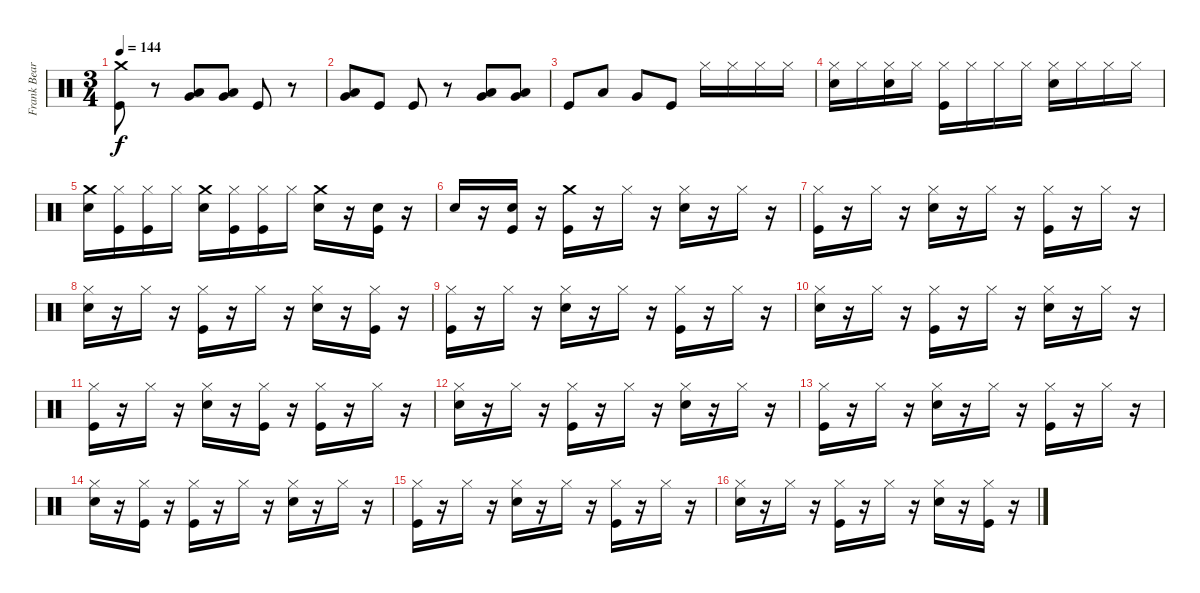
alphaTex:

\track ("Frank Beard" "Frank Bear") {instrument percussion}
\staff {score}
\articulation defaults
\ts (3 4)
\tempo 144
\clef neutral
\ks c
("Crash medium (hit)" "Kick (hit)").8{dy f} r.8 ("Very Low Tom (hit)" "Low Tom (hit)").8 ("Very Low Tom (hit)" "Low Floor Tom (hit)").8 "Kick (hit)".8 r.8 |
("Very Low Tom (hit)" "Low Floor Tom (hit)").8 "Kick (hit)".8 "Kick (hit)".8 r.8 ("Very Low Tom (hit)" "Low Tom (hit)").8 ("Very Low Tom (hit)" "Low Floor Tom (hit)").8 |
"Kick (hit)".8 "Low Tom (hit)".8 "Very Low Tom (hit)".8 "Kick (hit)".8 "Hi-Hat (closed)".16 "Hi-Hat (closed)".16 "Hi-Hat (closed)".16 "Hi-Hat (closed)".16 |
("Hi-Hat (closed)" "Electric Snare (hit)").16 "Hi-Hat (closed)".16 ("Hi-Hat (closed)" "Electric Snare (hit)").16 "Hi-Hat (closed)".16 ("Hi-Hat (closed)" "Kick (hit)").16 "Hi-Hat (closed)".16 "Hi-Hat (closed)".16 "Hi-Hat (closed)".16 ("Hi-Hat (closed)" "Electric Snare (hit)").16 "Hi-Hat (closed)".16 "Hi-Hat (closed)".16 "Hi-Hat (closed)".16 |
("Crash medium (hit)" "Electric Snare (hit)").16 ("Hi-Hat (closed)" "Kick (hit)").16 ("Hi-Hat (closed)" "Kick (hit)").16 "Hi-Hat (closed)".16 ("Crash medium (hit)" "Electric Snare (hit)").16 ("Hi-Hat (closed)" "Kick (hit)").16 ("Hi-Hat (closed)" "Kick (hit)").16 "Hi-Hat (closed)".16 ("Crash medium (hit)" "Electric Snare (hit)").16 r.16 ("Electric Snare (hit)" "Kick (hit)").16 r.16 |
"Electric Snare (hit)".16 r.16 ("Electric Snare (hit)" "Kick (hit)").16 r.16 ("Crash medium (hit)" "Kick (hit)").16 r.16 "Hi-Hat (closed)".16 r.16 ("Hi-Hat (closed)" "Electric Snare (hit)").16 r.16 "Hi-Hat (closed)".16 r.16 |
("Hi-Hat (closed)" "Kick (hit)").16 r.16 "Hi-Hat (closed)".16 r.16 ("Hi-Hat (closed)" "Electric Snare (hit)").16 r.16 "Hi-Hat (closed)".16 r.16 ("Hi-Hat (closed)" "Kick (hit)").16 r.16 "Hi-Hat (closed)".16 r.16 |
("Hi-Hat (closed)" "Electric Snare (hit)").16 r.16 "Hi-Hat (closed)".16 r.16 ("Hi-Hat (closed)" "Kick (hit)").16 r.16 "Hi-Hat (closed)".16 r.16 ("Hi-Hat (closed)" "Electric Snare (hit)").16 r.16 ("Hi-Hat (closed)" "Kick (hit)").16 r.16 |
("Hi-Hat (closed)" "Kick (hit)").16 r.16 "Hi-Hat (closed)".16 r.16 ("Hi-Hat (closed)" "Electric Snare (hit)").16 r.16 "Hi-Hat (closed)".16 r.16 ("Hi-Hat (closed)" "Kick (hit)").16 r.16 "Hi-Hat (closed)".16 r.16 |
("Hi-Hat (closed)" "Electric Snare (hit)").16 r.16 "Hi-Hat (closed)".16 r.16 ("Hi-Hat (closed)" "Kick (hit)").16 r.16 "Hi-Hat (closed)".16 r.16 ("Hi-Hat (closed)" "Electric Snare (hit)").16 r.16 "Hi-Hat (closed)".16 r.16 |
("Hi-Hat (closed)" "Kick (hit)").16 r.16 "Hi-Hat (closed)".16 r.16 ("Hi-Hat (closed)" "Electric Snare (hit)").16 r.16 ("Hi-Hat (closed)" "Kick (hit)").16 r.16 ("Hi-Hat (closed)" "Kick (hit)").16 r.16 "Hi-Hat (closed)".16 r.16 |
("Hi-Hat (closed)" "Electric Snare (hit)").16 r.16 "Hi-Hat (closed)".16 r.16 ("Hi-Hat (closed)" "Kick (hit)").16 r.16 "Hi-Hat (closed)".16 r.16 ("Hi-Hat (closed)" "Electric Snare (hit)").16 r.16 "Hi-Hat (closed)".16 r.16 |
("Hi-Hat (closed)" "Kick (hit)").16 r.16 "Hi-Hat (closed)".16 r.16 ("Hi-Hat (closed)" "Electric Snare (hit)").16 r.16 "Hi-Hat (closed)".16 r.16 ("Hi-Hat (closed)" "Kick (hit)").16 r.16 "Hi-Hat (closed)".16 r.16 |
("Hi-Hat (closed)" "Electric Snare (hit)").16 r.16 ("Hi-Hat (closed)" "Kick (hit)").16 r.16 ("Hi-Hat (closed)" "Kick (hit)").16 r.16 "Hi-Hat (closed)".16 r.16 ("Hi-Hat (closed)" "Electric Snare (hit)").16 r.16 "Hi-Hat (closed)".16 r.16 |
("Hi-Hat (closed)" "Kick (hit)").16 r.16 "Hi-Hat (closed)".16 r.16 ("Hi-Hat (closed)" "Electric Snare (hit)").16 r.16 "Hi-Hat (closed)".16 r.16 ("Hi-Hat (closed)" "Kick (hit)").16 r.16 "Hi-Hat (closed)".16 r.16 |
("Hi-Hat (closed)" "Electric Snare (hit)").16 r.16 "Hi-Hat (closed)".16 r.16 ("Hi-Hat (closed)" "Kick (hit)").16 r.16 "Hi-Hat (closed)".16 r.16 ("Hi-Hat (closed)" "Electric Snare (hit)").16 r.16 ("Hi-Hat (closed)" "Kick (hit)").16 r.16
